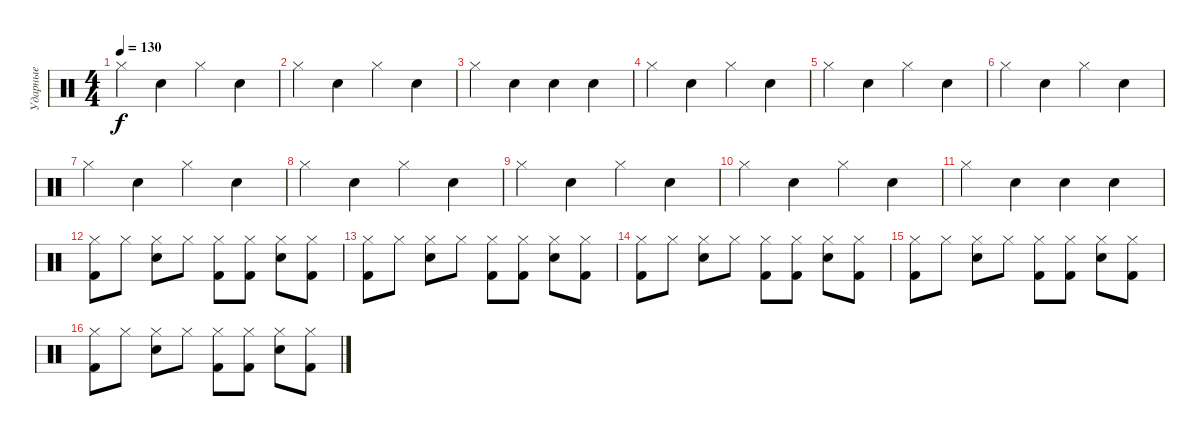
\track ("Ударные" "Ударные") {instrument percussion}
\staff {score}
\articulation defaults
\ts (4 4)
\tempo 130
\clef neutral
\ks c "Hi-Hat (closed)".4{dy f} "Electric Snare (hit)".4 "Hi-Hat (closed)".4 "Electric Snare (hit)".4
|
"Hi-Hat (closed)".4 "Electric Snare (hit)".4 "Hi-Hat (closed)".4 "Electric Snare (hit)".4 |
"Hi-Hat (closed)".4 "Electric Snare (hit)".4 "Electric Snare (hit)".4 "Electric Snare (hit)".4 |
"Hi-Hat (closed)".4 "Electric Snare (hit)".4 "Hi-Hat (closed)".4 "Electric Snare (hit)".4 |
"Hi-Hat (closed)".4 "Electric Snare (hit)".4 "Hi-Hat (closed)".4 "Electric Snare (hit)".4 |
"Hi-Hat (closed)".4 "Electric Snare (hit)".4 "Hi-Hat (closed)".4 "Electric Snare (hit)".4 |
"Hi-Hat (closed)".4 "Electric Snare (hit)".4 "Hi-Hat (closed)".4 "Electric Snare (hit)".4 |
"Hi-Hat (closed)".4 "Electric Snare (hit)".4 "Hi-Hat (closed)".4 "Electric Snare (hit)".4 |
"Hi-Hat (closed)".4 "Electric Snare (hit)".4 "Hi-Hat (closed)".4 "Electric Snare (hit)".4 |
"Hi-Hat (closed)".4 "Electric Snare (hit)".4 "Hi-Hat (closed)".4 "Electric Snare (hit)".4 |
"Hi-Hat (closed)".4 "Electric Snare (hit)".4 "Electric Snare (hit)".4 "Electric Snare (hit)".4 |
("Hi-Hat (closed)" "Kick (hit) 2").8 "Hi-Hat (closed)".8 ("Hi-Hat (closed)" "Snare (hit) 2").8 "Hi-Hat (closed)".8 ("Hi-Hat (closed)" "Kick (hit) 2").8 ("Hi-Hat (closed)" "Kick (hit) 2").8 ("Hi-Hat (closed)" "Snare (hit) 2").8 ("Hi-Hat (closed)" "Kick (hit) 2").8 |
("Hi-Hat (closed)" "Kick (hit) 2").8 "Hi-Hat (closed)".8 ("Hi-Hat (closed)" "Snare (hit) 2").8 "Hi-Hat (closed)".8 ("Hi-Hat (closed)" "Kick (hit) 2").8 ("Hi-Hat (closed)" "Kick (hit) 2").8 ("Hi-Hat (closed)" "Snare (hit) 2").8 ("Hi-Hat (closed)" "Kick (hit) 2").8 |
("Hi-Hat (closed)" "Kick (hit) 2").8 "Hi-Hat (closed)".8 ("Hi-Hat (closed)" "Snare (hit) 2").8 "Hi-Hat (closed)".8 ("Hi-Hat (closed)" "Kick (hit) 2").8 ("Hi-Hat (closed)" "Kick (hit) 2").8 ("Hi-Hat (closed)" "Snare (hit) 2").8 ("Hi-Hat (closed)" "Kick (hit) 2").8 |
("Hi-Hat (closed)" "Kick (hit) 2").8 "Hi-Hat (closed)".8 ("Hi-Hat (closed)" "Snare (hit) 2").8 "Hi-Hat (closed)".8 ("Hi-Hat (closed)" "Kick (hit) 2").8 ("Hi-Hat (closed)" "Kick (hit) 2").8 ("Hi-Hat (closed)" "Snare (hit) 2").8 ("Hi-Hat (closed)" "Kick (hit) 2").8 |
("Hi-Hat (closed)" "Kick (hit) 2").8 "Hi-Hat (closed)".8 ("Hi-Hat (closed)" "Snare (hit) 2").8 "Hi-Hat (closed)".8 ("Hi-Hat (closed)" "Kick (hit) 2").8 ("Hi-Hat (closed)" "Kick (hit) 2").8 ("Hi-Hat (closed)" "Snare (hit) 2").8 ("Hi-Hat (closed)" "Kick (hit) 2").8
